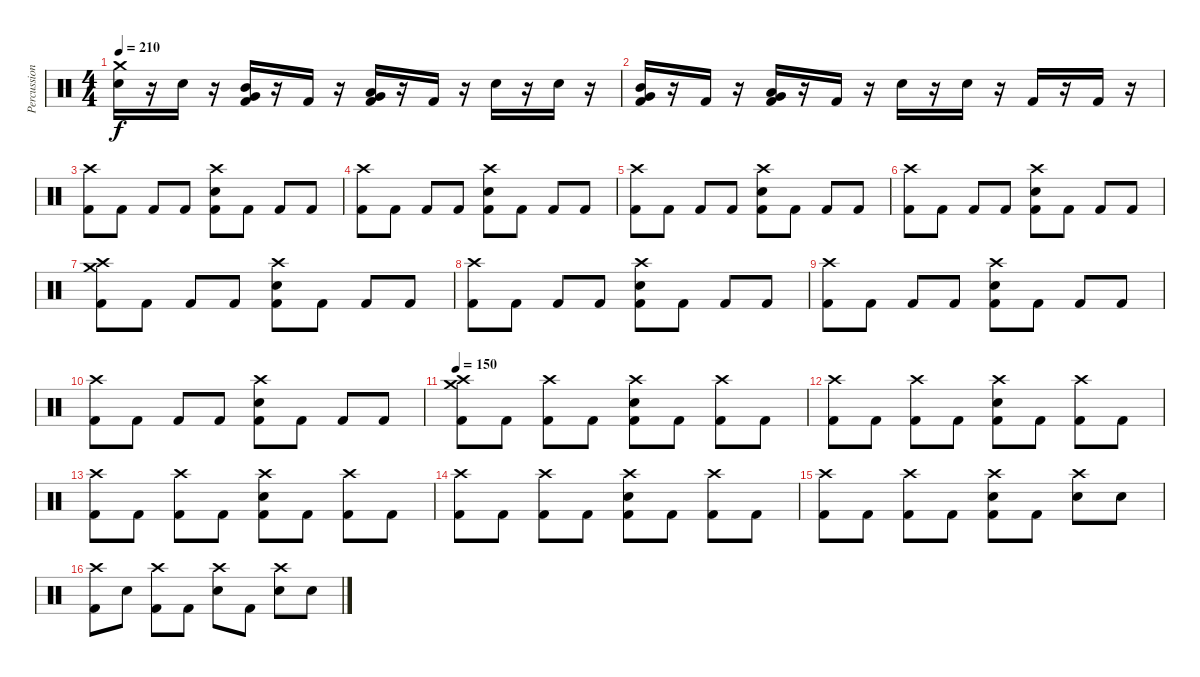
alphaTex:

\track ("Percussion" "Percussion") {instrument percussion}
\staff {score}
\articulation defaults
\ts (4 4)
\tempo 210
\clef neutral
\ks c
("Crash medium (hit)" "Snare (hit) 2").16{dy f} r.16 "Snare (hit) 2".16 r.16 ("Mid Tom (hit)" "Very Low Tom (hit)" "Kick (hit) 2").16 r.16 "Kick (hit) 2".16 r.16 ("Low Tom (hit)" "Very Low Tom (hit)" "Kick (hit) 2").16 r.16 "Kick (hit) 2".16 r.16 "Snare (hit) 2".16 r.16 "Snare (hit) 2".16 r.16 |
("Mid Tom (hit)" "Very Low Tom (hit)" "Kick (hit) 2").16 r.16 "Kick (hit) 2".16 r.16 ("Low Tom (hit)" "Very Low Tom (hit)" "Kick (hit) 2").16 r.16 "Kick (hit) 2".16 r.16 "Snare (hit) 2".16 r.16 "Snare (hit) 2".16 r.16 "Kick (hit) 2".16 r.16 "Kick (hit) 2".16 r.16 |
("Crash high (hit)" "Kick (hit) 2").8 "Kick (hit) 2".8 "Kick (hit) 2".8 "Kick (hit) 2".8 ("Crash high (hit)" "Snare (hit) 2" "Kick (hit) 2").8 "Kick (hit) 2".8 "Kick (hit) 2".8 "Kick (hit) 2".8 |
("Crash high (hit)" "Kick (hit) 2").8 "Kick (hit) 2".8 "Kick (hit) 2".8 "Kick (hit) 2".8 ("Crash high (hit)" "Snare (hit) 2" "Kick (hit) 2").8 "Kick (hit) 2".8 "Kick (hit) 2".8 "Kick (hit) 2".8 |
("Crash high (hit)" "Kick (hit) 2").8 "Kick (hit) 2".8 "Kick (hit) 2".8 "Kick (hit) 2".8 ("Crash high (hit)" "Snare (hit) 2" "Kick (hit) 2").8 "Kick (hit) 2".8 "Kick (hit) 2".8 "Kick (hit) 2".8 |
("Crash high (hit)" "Kick (hit) 2").8 "Kick (hit) 2".8 "Kick (hit) 2".8 "Kick (hit) 2".8 ("Crash high (hit)" "Snare (hit) 2" "Kick (hit) 2").8 "Kick (hit) 2".8 "Kick (hit) 2".8 "Kick (hit) 2".8 |
("Crash high (hit)" "Crash medium (hit)" "Kick (hit) 2").8 "Kick (hit) 2".8 "Kick (hit) 2".8 "Kick (hit) 2".8 ("Crash high (hit)" "Snare (hit) 2" "Kick (hit) 2").8 "Kick (hit) 2".8 "Kick (hit) 2".8 "Kick (hit) 2".8 |
("Crash high (hit)" "Kick (hit) 2").8 "Kick (hit) 2".8 "Kick (hit) 2".8 "Kick (hit) 2".8 ("Crash high (hit)" "Snare (hit) 2" "Kick (hit) 2").8 "Kick (hit) 2".8 "Kick (hit) 2".8 "Kick (hit) 2".8 |
("Crash high (hit)" "Kick (hit) 2").8 "Kick (hit) 2".8 "Kick (hit) 2".8 "Kick (hit) 2".8 ("Crash high (hit)" "Snare (hit) 2" "Kick (hit) 2").8 "Kick (hit) 2".8 "Kick (hit) 2".8 "Kick (hit) 2".8 |
("Crash high (hit)" "Kick (hit) 2").8 "Kick (hit) 2".8 "Kick (hit) 2".8 "Kick (hit) 2".8 ("Crash high (hit)" "Snare (hit) 2" "Kick (hit) 2").8 "Kick (hit) 2".8 "Kick (hit) 2".8 "Kick (hit) 2".8 |
\tempo 150
("Crash high (hit)" "Crash medium (hit)" "Kick (hit) 2").8 "Kick (hit) 2".8 ("Crash high (hit)" "Kick (hit) 2").8 "Kick (hit) 2".8 ("Crash high (hit)" "Snare (hit) 2" "Kick (hit) 2").8 "Kick (hit) 2".8 ("Crash high (hit)" "Kick (hit) 2").8 "Kick (hit) 2".8 |
("Crash high (hit)" "Kick (hit) 2").8 "Kick (hit) 2".8 ("Crash high (hit)" "Kick (hit) 2").8 "Kick (hit) 2".8 ("Crash high (hit)" "Snare (hit) 2" "Kick (hit) 2").8 "Kick (hit) 2".8 ("Crash high (hit)" "Kick (hit) 2").8 "Kick (hit) 2".8 |
("Crash high (hit)" "Kick (hit) 2").8 "Kick (hit) 2".8 ("Crash high (hit)" "Kick (hit) 2").8 "Kick (hit) 2".8 ("Crash high (hit)" "Snare (hit) 2" "Kick (hit) 2").8 "Kick (hit) 2".8 ("Crash high (hit)" "Kick (hit) 2").8 "Kick (hit) 2".8 |
("Crash high (hit)" "Kick (hit) 2").8 "Kick (hit) 2".8 ("Crash high (hit)" "Kick (hit) 2").8 "Kick (hit) 2".8 ("Crash high (hit)" "Snare (hit) 2" "Kick (hit) 2").8 "Kick (hit) 2".8 ("Crash high (hit)" "Kick (hit) 2").8 "Kick (hit) 2".8 |
("Crash high (hit)" "Kick (hit) 2").8 "Kick (hit) 2".8 ("Crash high (hit)" "Kick (hit) 2").8 "Kick (hit) 2".8 ("Crash high (hit)" "Snare (hit) 2" "Kick (hit) 2").8 "Kick (hit) 2".8 ("Crash high (hit)" "Snare (hit) 2").8 "Snare (hit) 2".8 |
("Crash high (hit)" "Kick (hit) 2").8 "Snare (hit) 2".8 ("Crash high (hit)" "Kick (hit) 2").8 "Kick (hit) 2".8 ("Crash high (hit)" "Snare (hit) 2").8 "Kick (hit) 2".8 ("Crash high (hit)" "Snare (hit) 2").8 "Snare (hit) 2".8
